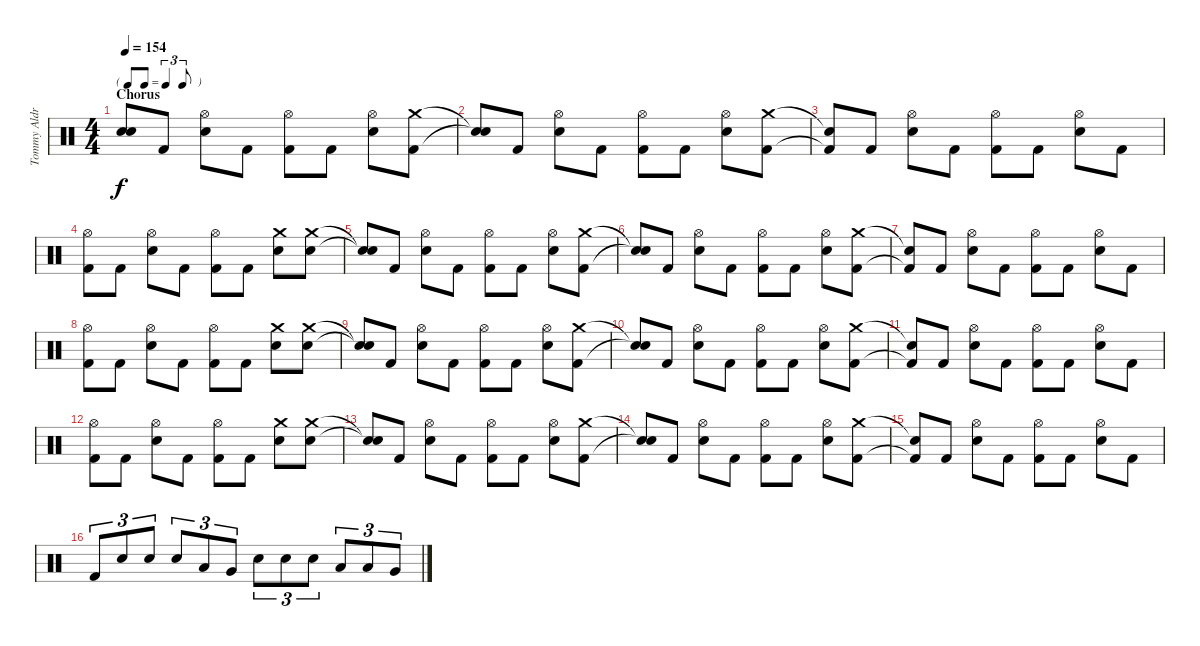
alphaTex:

\track ("Tommy Aldridge (Drums)" "Tommy Aldr") {instrument percussion}
\staff {score}
\articulation defaults
\ts (4 4)
\tf triplet8th
\section ("" "Chorus")
\tempo 154
\clef neutral
\ks c
("Snare (hit)"{t} "Snare (hit)"{t}).8{dy f} "Kick (hit) 2".8 ("Hi-Hat (open)" "Electric Snare (hit)").8 "Kick (hit) 2".8 ("Hi-Hat (open)" "Kick (hit) 2").8 "Kick (hit) 2".8 ("Hi-Hat (open)" "Electric Snare (hit)").8 ("Crash medium (hit)" "Kick (hit) 2").8 |
("Snare (hit)"{t} "Snare (hit)"{t}).8 "Kick (hit) 2".8 ("Hi-Hat (open)" "Electric Snare (hit)").8 "Kick (hit) 2".8 ("Hi-Hat (open)" "Kick (hit) 2").8 "Kick (hit) 2".8 ("Hi-Hat (open)" "Electric Snare (hit)").8 ("Crash medium (hit)" "Kick (hit) 2").8 |
("Snare (hit)"{t} "Kick (hit) 2"{t}).8 "Kick (hit) 2".8 ("Hi-Hat (open)" "Electric Snare (hit)").8 "Kick (hit) 2".8 ("Hi-Hat (open)" "Kick (hit) 2").8 "Kick (hit) 2".8 ("Hi-Hat (open)" "Electric Snare (hit)").8 "Kick (hit) 2".8 |
("Hi-Hat (open)" "Kick (hit) 2").8 "Kick (hit) 2".8 ("Hi-Hat (open)" "Electric Snare (hit)").8 "Kick (hit) 2".8 ("Hi-Hat (open)" "Kick (hit) 2").8 "Kick (hit) 2".8 ("Crash medium (hit)" "Electric Snare (hit)").8 ("Crash medium (hit)" "Electric Snare (hit)").8 |
("Snare (hit)"{t} "Snare (hit)"{t}).8 "Kick (hit) 2".8 ("Hi-Hat (open)" "Electric Snare (hit)").8 "Kick (hit) 2".8 ("Hi-Hat (open)" "Kick (hit) 2").8 "Kick (hit) 2".8 ("Hi-Hat (open)" "Electric Snare (hit)").8 ("Crash medium (hit)" "Kick (hit) 2").8 |
("Snare (hit)"{t} "Snare (hit)"{t}).8 "Kick (hit) 2".8 ("Hi-Hat (open)" "Electric Snare (hit)").8 "Kick (hit) 2".8 ("Hi-Hat (open)" "Kick (hit) 2").8 "Kick (hit) 2".8 ("Hi-Hat (open)" "Electric Snare (hit)").8 ("Crash medium (hit)" "Kick (hit) 2").8 |
("Snare (hit)"{t} "Kick (hit) 2"{t}).8 "Kick (hit) 2".8 ("Hi-Hat (open)" "Electric Snare (hit)").8 "Kick (hit) 2".8 ("Hi-Hat (open)" "Kick (hit) 2").8 "Kick (hit) 2".8 ("Hi-Hat (open)" "Electric Snare (hit)").8 "Kick (hit) 2".8 |
("Hi-Hat (open)" "Kick (hit) 2").8 "Kick (hit) 2".8 ("Hi-Hat (open)" "Electric Snare (hit)").8 "Kick (hit) 2".8 ("Hi-Hat (open)" "Kick (hit) 2").8 "Kick (hit) 2".8 ("Crash medium (hit)" "Electric Snare (hit)").8 ("Crash medium (hit)" "Electric Snare (hit)").8 |
("Snare (hit)"{t} "Snare (hit)"{t}).8 "Kick (hit) 2".8 ("Hi-Hat (open)" "Electric Snare (hit)").8 "Kick (hit) 2".8 ("Hi-Hat (open)" "Kick (hit) 2").8 "Kick (hit) 2".8 ("Hi-Hat (open)" "Electric Snare (hit)").8 ("Crash medium (hit)" "Kick (hit) 2").8 |
("Snare (hit)"{t} "Snare (hit)"{t}).8 "Kick (hit) 2".8 ("Hi-Hat (open)" "Electric Snare (hit)").8 "Kick (hit) 2".8 ("Hi-Hat (open)" "Kick (hit) 2").8 "Kick (hit) 2".8 ("Hi-Hat (open)" "Electric Snare (hit)").8 ("Crash medium (hit)" "Kick (hit) 2").8 |
("Snare (hit)"{t} "Kick (hit) 2"{t}).8 "Kick (hit) 2".8 ("Hi-Hat (open)" "Electric Snare (hit)").8 "Kick (hit) 2".8 ("Hi-Hat (open)" "Kick (hit) 2").8 "Kick (hit) 2".8 ("Hi-Hat (open)" "Electric Snare (hit)").8 "Kick (hit) 2".8 |
("Hi-Hat (open)" "Kick (hit) 2").8 "Kick (hit) 2".8 ("Hi-Hat (open)" "Electric Snare (hit)").8 "Kick (hit) 2".8 ("Hi-Hat (open)" "Kick (hit) 2").8 "Kick (hit) 2".8 ("Crash medium (hit)" "Electric Snare (hit)").8 ("Crash medium (hit)" "Electric Snare (hit)").8 |
("Snare (hit)"{t} "Snare (hit)"{t}).8 "Kick (hit) 2".8 ("Hi-Hat (open)" "Electric Snare (hit)").8 "Kick (hit) 2".8 ("Hi-Hat (open)" "Kick (hit) 2").8 "Kick (hit) 2".8 ("Hi-Hat (open)" "Electric Snare (hit)").8 ("Crash medium (hit)" "Kick (hit) 2").8 |
("Snare (hit)"{t} "Snare (hit)"{t}).8 "Kick (hit) 2".8 ("Hi-Hat (open)" "Electric Snare (hit)").8 "Kick (hit) 2".8 ("Hi-Hat (open)" "Kick (hit) 2").8 "Kick (hit) 2".8 ("Hi-Hat (open)" "Electric Snare (hit)").8 ("Crash medium (hit)" "Kick (hit) 2").8 |
("Snare (hit)"{t} "Kick (hit) 2"{t}).8 "Kick (hit) 2".8 ("Hi-Hat (open)" "Electric Snare (hit)").8 "Kick (hit) 2".8 ("Hi-Hat (open)" "Kick (hit) 2").8 "Kick (hit) 2".8 ("Hi-Hat (open)" "Electric Snare (hit)").8 "Kick (hit) 2".8 |
"Kick (hit) 2".8{tu (3 2)} "Electric Snare (hit)".8{tu (3 2)} "Electric Snare (hit)".8{tu (3 2)} "Electric Snare (hit)".8{tu (3 2)} "Low Tom (hit)".8{tu (3 2)} "Very Low Tom (hit)".8{tu (3 2)} "Electric Snare (hit)".8{tu (3 2)} "Electric Snare (hit)".8{tu (3 2)} "Electric Snare (hit)".8{tu (3 2)} "Low Tom (hit)".8{tu (3 2)} "Low Tom (hit)".8{tu (3 2)} "Very Low Tom (hit)".8{tu (3 2)}
